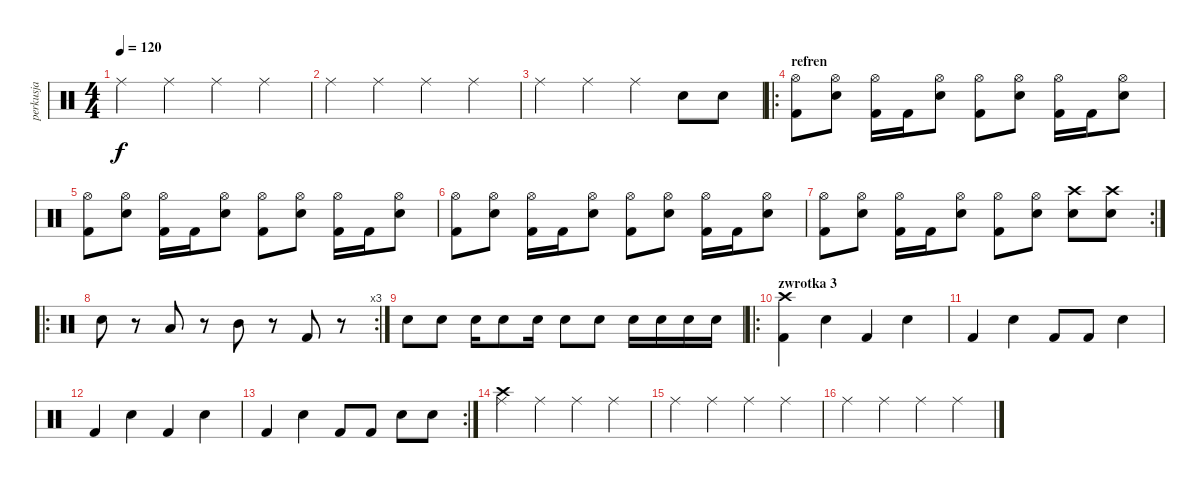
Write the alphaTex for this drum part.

\track ("perkusja" "perkusja") {instrument percussion}
\staff {score}
\articulation defaults
\ts (4 4)
\tempo 120
\clef neutral
\ks c "Ride (middle)".4{dy f} "Ride (middle)".4 "Ride (middle)".4 "Ride (middle)".4
|
"Ride (middle)".4 "Ride (middle)".4 "Ride (middle)".4 "Ride (middle)".4 |
"Ride (middle)".4 "Ride (middle)".4 "Ride (middle)".4 "Electric Snare (hit)".8 "Electric Snare (hit)".8 |
\ro
\section ("" "refren")
("Hi-Hat (open)" "Kick (hit) 2").8 ("Hi-Hat (open)" "Electric Snare (hit)").8 ("Hi-Hat (open)" "Kick (hit) 2").16 "Kick (hit) 2".16 ("Hi-Hat (open)" "Electric Snare (hit)").8 ("Hi-Hat (open)" "Kick (hit) 2").8 ("Hi-Hat (open)" "Electric Snare (hit)").8 ("Hi-Hat (open)" "Kick (hit) 2").16 "Kick (hit) 2".16 ("Hi-Hat (open)" "Electric Snare (hit)").8 |
("Hi-Hat (open)" "Kick (hit) 2").8 ("Hi-Hat (open)" "Electric Snare (hit)").8 ("Hi-Hat (open)" "Kick (hit) 2").16 "Kick (hit) 2".16 ("Hi-Hat (open)" "Electric Snare (hit)").8 ("Hi-Hat (open)" "Kick (hit) 2").8 ("Hi-Hat (open)" "Electric Snare (hit)").8 ("Hi-Hat (open)" "Kick (hit) 2").16 "Kick (hit) 2".16 ("Hi-Hat (open)" "Electric Snare (hit)").8 |
("Hi-Hat (open)" "Kick (hit) 2").8 ("Hi-Hat (open)" "Electric Snare (hit)").8 ("Hi-Hat (open)" "Kick (hit) 2").16 "Kick (hit) 2".16 ("Hi-Hat (open)" "Electric Snare (hit)").8 ("Hi-Hat (open)" "Kick (hit) 2").8 ("Hi-Hat (open)" "Electric Snare (hit)").8 ("Hi-Hat (open)" "Kick (hit) 2").16 "Kick (hit) 2".16 ("Hi-Hat (open)" "Electric Snare (hit)").8 |
\rc 2
("Hi-Hat (open)" "Kick (hit) 2").8 ("Hi-Hat (open)" "Electric Snare (hit)").8 ("Hi-Hat (open)" "Kick (hit) 2").16 "Kick (hit) 2".16 ("Hi-Hat (open)" "Electric Snare (hit)").8 ("Hi-Hat (open)" "Kick (hit) 2").8 ("Hi-Hat (open)" "Electric Snare (hit)").8 ("Crash high (hit)" "Electric Snare (hit)").8 ("Crash high (hit)" "Electric Snare (hit)").8 |
\ro
\rc 3 "Electric Snare (hit)".8
r.8 "Low Tom (hit)".8 r.8 "Mid Tom (hit)".8 r.8 "Kick (hit) 2".8 r.8 |
"Electric Snare (hit)".8 "Electric Snare (hit)".8 "Electric Snare (hit)".16 "Electric Snare (hit)".8 "Electric Snare (hit)".16 "Electric Snare (hit)".8 "Electric Snare (hit)".8 "Electric Snare (hit)".16 "Electric Snare (hit)".16 "Electric Snare (hit)".16 "Electric Snare (hit)".16 |
\ro
\section ("" "zwrotka 3")
("Crash high (hit)" "Kick (hit) 2").4 "Electric Snare (hit)".4 "Kick (hit) 2".4 "Electric Snare (hit)".4 |
"Kick (hit) 2".4 "Electric Snare (hit)".4 "Kick (hit) 2".8 "Kick (hit) 2".8 "Electric Snare (hit)".4 |
"Kick (hit) 2".4 "Electric Snare (hit)".4 "Kick (hit) 2".4 "Electric Snare (hit)".4 |
\rc 2 "Kick (hit) 2".4 "Electric Snare (hit)".4 "Kick (hit) 2".8 "Kick (hit) 2".8 "Electric Snare (hit)".8 "Electric Snare (hit)".8
|
("Ride (middle)" "Crash high (hit)").4 "Ride (middle)".4 "Ride (middle)".4 "Ride (middle)".4 |
"Ride (middle)".4 "Ride (middle)".4 "Ride (middle)".4 "Ride (middle)".4 |
"Ride (middle)".4 "Ride (middle)".4 "Ride (middle)".4 "Ride (middle)".4
